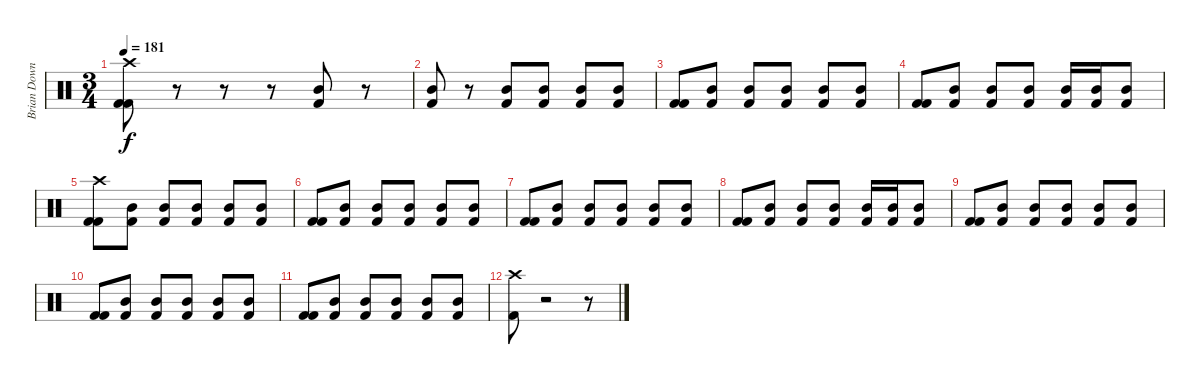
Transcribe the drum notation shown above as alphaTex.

\track ("Brian Downey" "Brian Down") {instrument percussion}
\staff {score}
\articulation defaults
\ts (3 4)
\tempo 181
\clef neutral
\ks c
("Crash high (hit)" "Kick (hit) 2" "Kick (hit) 2").8{dy f} r.8 r.8 r.8 ("Mid Tom (hit)" "Kick (hit) 2").8 r.8 |
("Mid Tom (hit)" "Kick (hit) 2").8 r.8 ("Mid Tom (hit)" "Kick (hit) 2").8 ("Mid Tom (hit)" "Kick (hit) 2").8 ("Mid Tom (hit)" "Kick (hit) 2").8 ("Mid Tom (hit)" "Kick (hit) 2").8 |
("Kick (hit) 2" "Kick (hit) 2").8 ("Mid Tom (hit)" "Kick (hit) 2").8 ("Mid Tom (hit)" "Kick (hit) 2").8 ("Mid Tom (hit)" "Kick (hit) 2").8 ("Mid Tom (hit)" "Kick (hit) 2").8 ("Mid Tom (hit)" "Kick (hit) 2").8 |
("Kick (hit) 2" "Kick (hit) 2").8 ("Mid Tom (hit)" "Kick (hit) 2").8 ("Mid Tom (hit)" "Kick (hit) 2").8 ("Mid Tom (hit)" "Kick (hit) 2").8 ("Mid Tom (hit)" "Kick (hit) 2").16 ("Mid Tom (hit)" "Kick (hit) 2").16 ("Mid Tom (hit)" "Kick (hit) 2").8 |
("Crash high (hit)" "Kick (hit) 2" "Kick (hit) 2").8 ("Mid Tom (hit)" "Kick (hit) 2").8 ("Mid Tom (hit)" "Kick (hit) 2").8 ("Mid Tom (hit)" "Kick (hit) 2").8 ("Mid Tom (hit)" "Kick (hit) 2").8 ("Mid Tom (hit)" "Kick (hit) 2").8 |
("Kick (hit) 2" "Kick (hit) 2").8 ("Mid Tom (hit)" "Kick (hit) 2").8 ("Mid Tom (hit)" "Kick (hit) 2").8 ("Mid Tom (hit)" "Kick (hit) 2").8 ("Mid Tom (hit)" "Kick (hit) 2").8 ("Mid Tom (hit)" "Kick (hit) 2").8 |
("Kick (hit) 2" "Kick (hit) 2").8 ("Mid Tom (hit)" "Kick (hit) 2").8 ("Mid Tom (hit)" "Kick (hit) 2").8 ("Mid Tom (hit)" "Kick (hit) 2").8 ("Mid Tom (hit)" "Kick (hit) 2").8 ("Mid Tom (hit)" "Kick (hit) 2").8 |
("Kick (hit) 2" "Kick (hit) 2").8 ("Mid Tom (hit)" "Kick (hit) 2").8 ("Mid Tom (hit)" "Kick (hit) 2").8 ("Mid Tom (hit)" "Kick (hit) 2").8 ("Mid Tom (hit)" "Kick (hit) 2").16 ("Mid Tom (hit)" "Kick (hit) 2").16 ("Mid Tom (hit)" "Kick (hit) 2").8 |
("Kick (hit) 2" "Kick (hit) 2").8 ("Mid Tom (hit)" "Kick (hit) 2").8 ("Mid Tom (hit)" "Kick (hit) 2").8 ("Mid Tom (hit)" "Kick (hit) 2").8 ("Mid Tom (hit)" "Kick (hit) 2").8 ("Mid Tom (hit)" "Kick (hit) 2").8 |
("Kick (hit) 2" "Kick (hit) 2").8 ("Mid Tom (hit)" "Kick (hit) 2").8 ("Mid Tom (hit)" "Kick (hit) 2").8 ("Mid Tom (hit)" "Kick (hit) 2").8 ("Mid Tom (hit)" "Kick (hit) 2").8 ("Mid Tom (hit)" "Kick (hit) 2").8 |
("Kick (hit) 2" "Kick (hit) 2").8 ("Mid Tom (hit)" "Kick (hit) 2").8 ("Mid Tom (hit)" "Kick (hit) 2").8 ("Mid Tom (hit)" "Kick (hit) 2").8 ("Mid Tom (hit)" "Kick (hit) 2").8 ("Mid Tom (hit)" "Kick (hit) 2").8 |
("Crash high (hit)" "Kick (hit) 2").8 r.2 r.8
